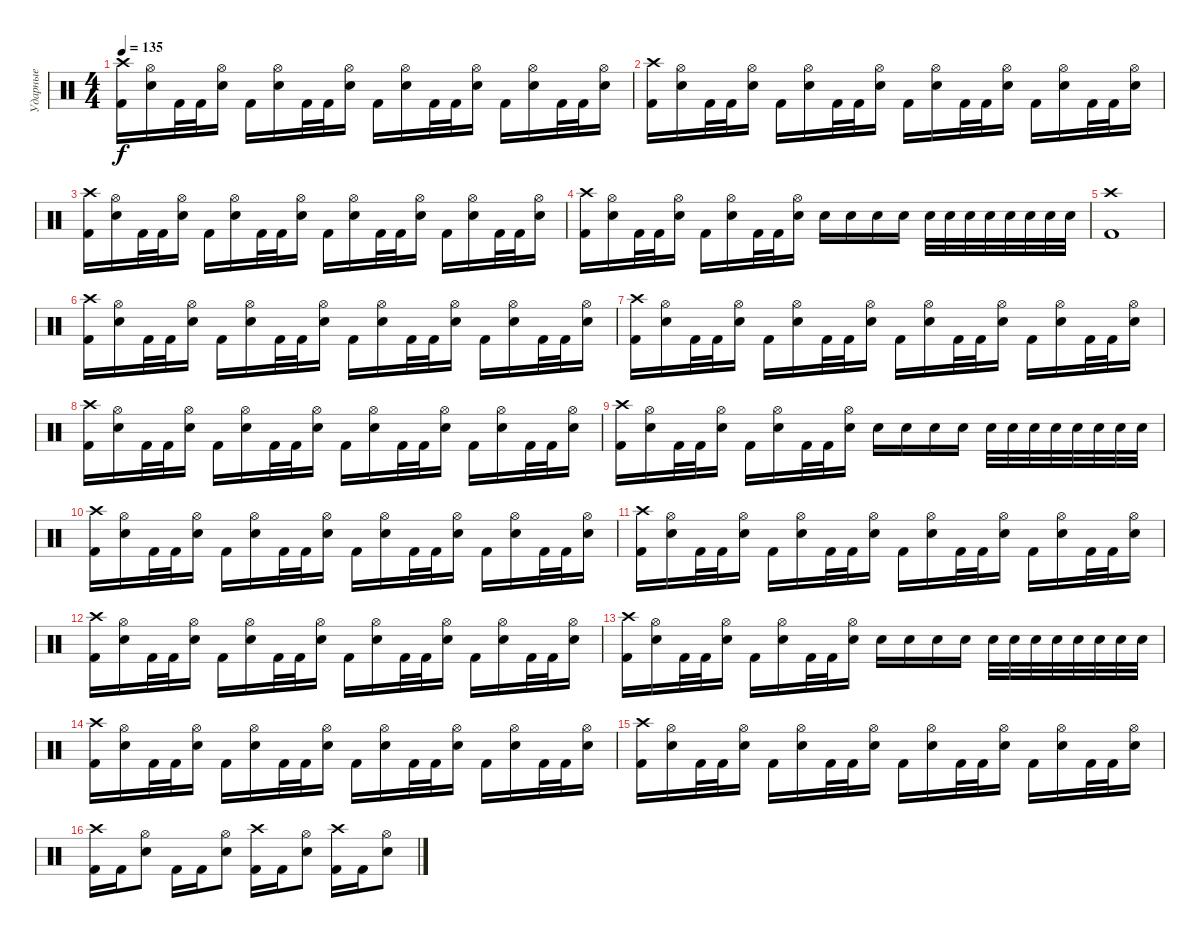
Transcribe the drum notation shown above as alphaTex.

\track ("Ударные" "Ударные") {instrument percussion}
\staff {score}
\articulation defaults
\ts (4 4)
\tempo 135
\clef neutral
\ks c
("Kick (hit) 2" "Crash high (hit)").16{dy f} ("Electric Snare (hit)" "Hi-Hat (open)").16 "Kick (hit) 2".32 "Kick (hit) 2".32 ("Electric Snare (hit)" "Hi-Hat (open)").16 "Kick (hit) 2".16 ("Electric Snare (hit)" "Hi-Hat (open)").16 "Kick (hit) 2".32 "Kick (hit) 2".32 ("Electric Snare (hit)" "Hi-Hat (open)").16 "Kick (hit) 2".16 ("Electric Snare (hit)" "Hi-Hat (open)").16 "Kick (hit) 2".32 "Kick (hit) 2".32 ("Electric Snare (hit)" "Hi-Hat (open)").16 "Kick (hit) 2".16 ("Electric Snare (hit)" "Hi-Hat (open)").16 "Kick (hit) 2".32 "Kick (hit) 2".32 ("Electric Snare (hit)" "Hi-Hat (open)").16 |
("Kick (hit) 2" "Crash high (hit)").16 ("Electric Snare (hit)" "Hi-Hat (open)").16 "Kick (hit) 2".32 "Kick (hit) 2".32 ("Electric Snare (hit)" "Hi-Hat (open)").16 "Kick (hit) 2".16 ("Electric Snare (hit)" "Hi-Hat (open)").16 "Kick (hit) 2".32 "Kick (hit) 2".32 ("Electric Snare (hit)" "Hi-Hat (open)").16 "Kick (hit) 2".16 ("Electric Snare (hit)" "Hi-Hat (open)").16 "Kick (hit) 2".32 "Kick (hit) 2".32 ("Electric Snare (hit)" "Hi-Hat (open)").16 "Kick (hit) 2".16 ("Electric Snare (hit)" "Hi-Hat (open)").16 "Kick (hit) 2".32 "Kick (hit) 2".32 ("Electric Snare (hit)" "Hi-Hat (open)").16 |
("Kick (hit) 2" "Crash high (hit)").16 ("Electric Snare (hit)" "Hi-Hat (open)").16 "Kick (hit) 2".32 "Kick (hit) 2".32 ("Electric Snare (hit)" "Hi-Hat (open)").16 "Kick (hit) 2".16 ("Electric Snare (hit)" "Hi-Hat (open)").16 "Kick (hit) 2".32 "Kick (hit) 2".32 ("Electric Snare (hit)" "Hi-Hat (open)").16 "Kick (hit) 2".16 ("Electric Snare (hit)" "Hi-Hat (open)").16 "Kick (hit) 2".32 "Kick (hit) 2".32 ("Electric Snare (hit)" "Hi-Hat (open)").16 "Kick (hit) 2".16 ("Electric Snare (hit)" "Hi-Hat (open)").16 "Kick (hit) 2".32 "Kick (hit) 2".32 ("Electric Snare (hit)" "Hi-Hat (open)").16 |
("Kick (hit) 2" "Crash high (hit)").16 ("Electric Snare (hit)" "Hi-Hat (open)").16 "Kick (hit) 2".32 "Kick (hit) 2".32 ("Electric Snare (hit)" "Hi-Hat (open)").16 "Kick (hit) 2".16 ("Electric Snare (hit)" "Hi-Hat (open)").16 "Kick (hit) 2".32 "Kick (hit) 2".32 ("Electric Snare (hit)" "Hi-Hat (open)").16 "Electric Snare (hit)".16 "Electric Snare (hit)".16 "Electric Snare (hit)".16 "Electric Snare (hit)".16 "Electric Snare (hit)".32 "Electric Snare (hit)".32 "Electric Snare (hit)".32 "Electric Snare (hit)".32 "Electric Snare (hit)".32 "Electric Snare (hit)".32 "Electric Snare (hit)".32 "Electric Snare (hit)".32 |
("Crash high (hit)" "Kick (hit) 2").1 |
("Kick (hit) 2" "Crash high (hit)").16 ("Electric Snare (hit)" "Hi-Hat (open)").16 "Kick (hit) 2".32 "Kick (hit) 2".32 ("Electric Snare (hit)" "Hi-Hat (open)").16 "Kick (hit) 2".16 ("Electric Snare (hit)" "Hi-Hat (open)").16 "Kick (hit) 2".32 "Kick (hit) 2".32 ("Electric Snare (hit)" "Hi-Hat (open)").16 "Kick (hit) 2".16 ("Electric Snare (hit)" "Hi-Hat (open)").16 "Kick (hit) 2".32 "Kick (hit) 2".32 ("Electric Snare (hit)" "Hi-Hat (open)").16 "Kick (hit) 2".16 ("Electric Snare (hit)" "Hi-Hat (open)").16 "Kick (hit) 2".32 "Kick (hit) 2".32 ("Electric Snare (hit)" "Hi-Hat (open)").16 |
("Kick (hit) 2" "Crash high (hit)").16 ("Electric Snare (hit)" "Hi-Hat (open)").16 "Kick (hit) 2".32 "Kick (hit) 2".32 ("Electric Snare (hit)" "Hi-Hat (open)").16 "Kick (hit) 2".16 ("Electric Snare (hit)" "Hi-Hat (open)").16 "Kick (hit) 2".32 "Kick (hit) 2".32 ("Electric Snare (hit)" "Hi-Hat (open)").16 "Kick (hit) 2".16 ("Electric Snare (hit)" "Hi-Hat (open)").16 "Kick (hit) 2".32 "Kick (hit) 2".32 ("Electric Snare (hit)" "Hi-Hat (open)").16 "Kick (hit) 2".16 ("Electric Snare (hit)" "Hi-Hat (open)").16 "Kick (hit) 2".32 "Kick (hit) 2".32 ("Electric Snare (hit)" "Hi-Hat (open)").16 |
("Kick (hit) 2" "Crash high (hit)").16 ("Electric Snare (hit)" "Hi-Hat (open)").16 "Kick (hit) 2".32 "Kick (hit) 2".32 ("Electric Snare (hit)" "Hi-Hat (open)").16 "Kick (hit) 2".16 ("Electric Snare (hit)" "Hi-Hat (open)").16 "Kick (hit) 2".32 "Kick (hit) 2".32 ("Electric Snare (hit)" "Hi-Hat (open)").16 "Kick (hit) 2".16 ("Electric Snare (hit)" "Hi-Hat (open)").16 "Kick (hit) 2".32 "Kick (hit) 2".32 ("Electric Snare (hit)" "Hi-Hat (open)").16 "Kick (hit) 2".16 ("Electric Snare (hit)" "Hi-Hat (open)").16 "Kick (hit) 2".32 "Kick (hit) 2".32 ("Electric Snare (hit)" "Hi-Hat (open)").16 |
("Kick (hit) 2" "Crash high (hit)").16 ("Electric Snare (hit)" "Hi-Hat (open)").16 "Kick (hit) 2".32 "Kick (hit) 2".32 ("Electric Snare (hit)" "Hi-Hat (open)").16 "Kick (hit) 2".16 ("Electric Snare (hit)" "Hi-Hat (open)").16 "Kick (hit) 2".32 "Kick (hit) 2".32 ("Electric Snare (hit)" "Hi-Hat (open)").16 "Electric Snare (hit)".16 "Electric Snare (hit)".16 "Electric Snare (hit)".16 "Electric Snare (hit)".16 "Electric Snare (hit)".32 "Electric Snare (hit)".32 "Electric Snare (hit)".32 "Electric Snare (hit)".32 "Electric Snare (hit)".32 "Electric Snare (hit)".32 "Electric Snare (hit)".32 "Electric Snare (hit)".32 |
("Kick (hit) 2" "Crash high (hit)").16 ("Electric Snare (hit)" "Hi-Hat (open)").16 "Kick (hit) 2".32 "Kick (hit) 2".32 ("Electric Snare (hit)" "Hi-Hat (open)").16 "Kick (hit) 2".16 ("Electric Snare (hit)" "Hi-Hat (open)").16 "Kick (hit) 2".32 "Kick (hit) 2".32 ("Electric Snare (hit)" "Hi-Hat (open)").16 "Kick (hit) 2".16 ("Electric Snare (hit)" "Hi-Hat (open)").16 "Kick (hit) 2".32 "Kick (hit) 2".32 ("Electric Snare (hit)" "Hi-Hat (open)").16 "Kick (hit) 2".16 ("Electric Snare (hit)" "Hi-Hat (open)").16 "Kick (hit) 2".32 "Kick (hit) 2".32 ("Electric Snare (hit)" "Hi-Hat (open)").16 |
("Kick (hit) 2" "Crash high (hit)").16 ("Electric Snare (hit)" "Hi-Hat (open)").16 "Kick (hit) 2".32 "Kick (hit) 2".32 ("Electric Snare (hit)" "Hi-Hat (open)").16 "Kick (hit) 2".16 ("Electric Snare (hit)" "Hi-Hat (open)").16 "Kick (hit) 2".32 "Kick (hit) 2".32 ("Electric Snare (hit)" "Hi-Hat (open)").16 "Kick (hit) 2".16 ("Electric Snare (hit)" "Hi-Hat (open)").16 "Kick (hit) 2".32 "Kick (hit) 2".32 ("Electric Snare (hit)" "Hi-Hat (open)").16 "Kick (hit) 2".16 ("Electric Snare (hit)" "Hi-Hat (open)").16 "Kick (hit) 2".32 "Kick (hit) 2".32 ("Electric Snare (hit)" "Hi-Hat (open)").16 |
("Kick (hit) 2" "Crash high (hit)").16 ("Electric Snare (hit)" "Hi-Hat (open)").16 "Kick (hit) 2".32 "Kick (hit) 2".32 ("Electric Snare (hit)" "Hi-Hat (open)").16 "Kick (hit) 2".16 ("Electric Snare (hit)" "Hi-Hat (open)").16 "Kick (hit) 2".32 "Kick (hit) 2".32 ("Electric Snare (hit)" "Hi-Hat (open)").16 "Kick (hit) 2".16 ("Electric Snare (hit)" "Hi-Hat (open)").16 "Kick (hit) 2".32 "Kick (hit) 2".32 ("Electric Snare (hit)" "Hi-Hat (open)").16 "Kick (hit) 2".16 ("Electric Snare (hit)" "Hi-Hat (open)").16 "Kick (hit) 2".32 "Kick (hit) 2".32 ("Electric Snare (hit)" "Hi-Hat (open)").16 |
("Kick (hit) 2" "Crash high (hit)").16 ("Electric Snare (hit)" "Hi-Hat (open)").16 "Kick (hit) 2".32 "Kick (hit) 2".32 ("Electric Snare (hit)" "Hi-Hat (open)").16 "Kick (hit) 2".16 ("Electric Snare (hit)" "Hi-Hat (open)").16 "Kick (hit) 2".32 "Kick (hit) 2".32 ("Electric Snare (hit)" "Hi-Hat (open)").16 "Electric Snare (hit)".16 "Electric Snare (hit)".16 "Electric Snare (hit)".16 "Electric Snare (hit)".16 "Electric Snare (hit)".32 "Electric Snare (hit)".32 "Electric Snare (hit)".32 "Electric Snare (hit)".32 "Electric Snare (hit)".32 "Electric Snare (hit)".32 "Electric Snare (hit)".32 "Electric Snare (hit)".32 |
("Kick (hit) 2" "Crash high (hit)").16 ("Electric Snare (hit)" "Hi-Hat (open)").16 "Kick (hit) 2".32 "Kick (hit) 2".32 ("Electric Snare (hit)" "Hi-Hat (open)").16 "Kick (hit) 2".16 ("Electric Snare (hit)" "Hi-Hat (open)").16 "Kick (hit) 2".32 "Kick (hit) 2".32 ("Electric Snare (hit)" "Hi-Hat (open)").16 "Kick (hit) 2".16 ("Electric Snare (hit)" "Hi-Hat (open)").16 "Kick (hit) 2".32 "Kick (hit) 2".32 ("Electric Snare (hit)" "Hi-Hat (open)").16 "Kick (hit) 2".16 ("Electric Snare (hit)" "Hi-Hat (open)").16 "Kick (hit) 2".32 "Kick (hit) 2".32 ("Electric Snare (hit)" "Hi-Hat (open)").16 |
("Kick (hit) 2" "Crash high (hit)").16 ("Electric Snare (hit)" "Hi-Hat (open)").16 "Kick (hit) 2".32 "Kick (hit) 2".32 ("Electric Snare (hit)" "Hi-Hat (open)").16 "Kick (hit) 2".16 ("Electric Snare (hit)" "Hi-Hat (open)").16 "Kick (hit) 2".32 "Kick (hit) 2".32 ("Electric Snare (hit)" "Hi-Hat (open)").16 "Kick (hit) 2".16 ("Electric Snare (hit)" "Hi-Hat (open)").16 "Kick (hit) 2".32 "Kick (hit) 2".32 ("Electric Snare (hit)" "Hi-Hat (open)").16 "Kick (hit) 2".16 ("Electric Snare (hit)" "Hi-Hat (open)").16 "Kick (hit) 2".32 "Kick (hit) 2".32 ("Electric Snare (hit)" "Hi-Hat (open)").16 |
("Kick (hit) 2" "Crash high (hit)").16 "Kick (hit) 2".16 ("Electric Snare (hit)" "Hi-Hat (open)").8 "Kick (hit) 2".16 "Kick (hit) 2".16 ("Electric Snare (hit)" "Hi-Hat (open)").8 ("Kick (hit) 2" "Crash high (hit)").16 "Kick (hit) 2".16 ("Electric Snare (hit)" "Hi-Hat (open)").8 ("Kick (hit) 2" "Crash high (hit)").16 "Kick (hit) 2".16 ("Electric Snare (hit)" "Hi-Hat (open)").8
